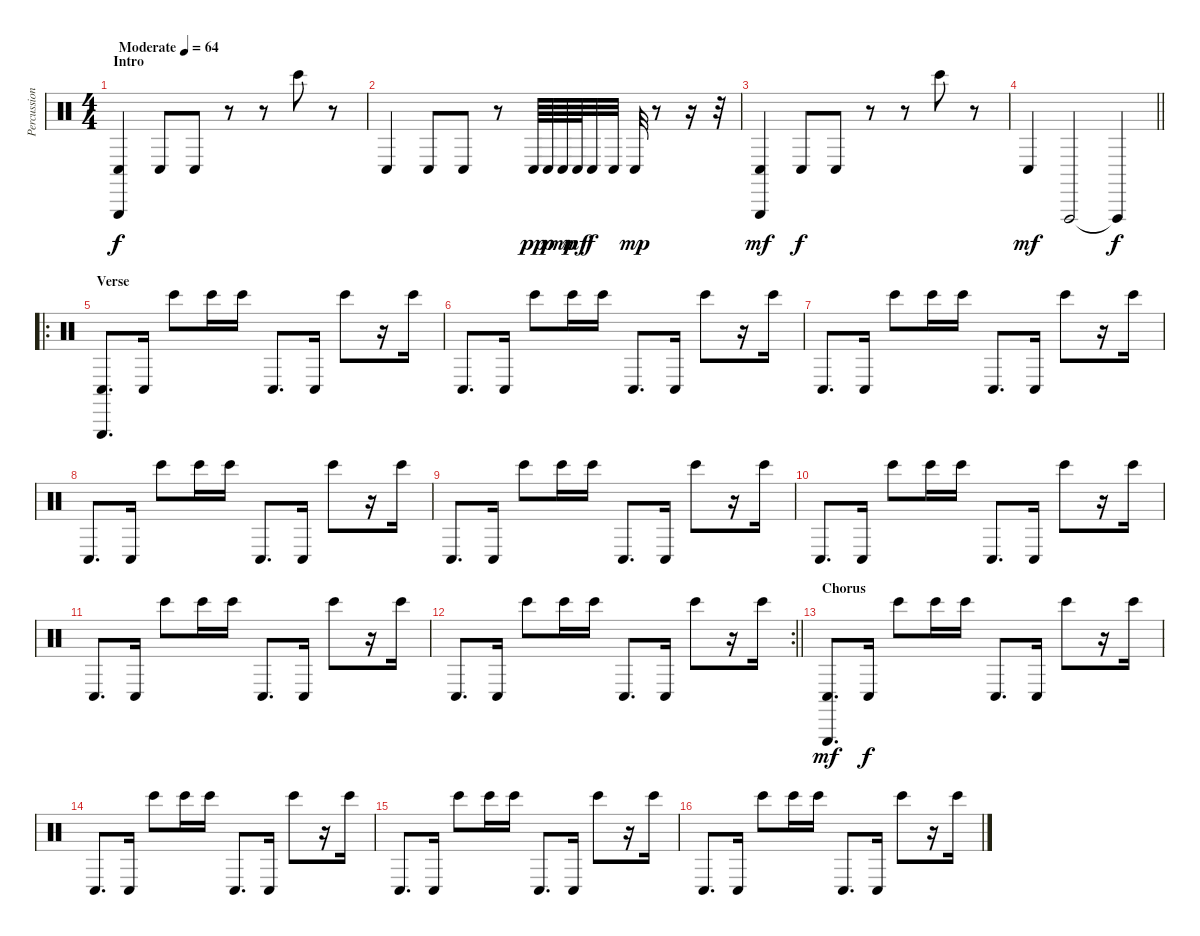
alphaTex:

\track ("Percussions" "Percussion") {instrument percussion}
\staff {score}
\articulation defaults
\ts (4 4)
\section ("" "Intro")
\tempo (64 "Moderate")
\clef neutral
\ks c
("Conga low (hit)" "Triangle (hit)").4{dy f} "Conga low (hit)".8 "Conga low (hit)".8 r.8 r.8 "Bongo High (hit)".8 r.8 |
"Conga low (hit)".4 "Conga low (hit)".8 "Conga low (hit)".8 r.8 "Conga low (hit)".64{dy pp} "Conga low (hit)".64{dy p} "Conga low (hit)".64{dy mp} "Conga low (hit)".64{dy mf} "Conga low (hit)".32{dy f} "Conga low (hit)".32 "Conga low (hit)".32{dy mp} r.8 r.16 r.32 |
("Conga low (hit)" "Triangle (hit)").4{dy mf} "Conga low (hit)".8{dy f} "Conga low (hit)".8 r.8 r.8 "Bongo High (hit)".8 r.8 |
\barLineRight lightlight "Conga low (hit)".4{dy mf} "Vibraslap (hit)".2 "Vibraslap (hit)"{t}.4{dy f}
|
\ro
\section ("" "Verse")
("Conga low (hit)" "Triangle (hit)").8{d} "Conga low (hit)".16 "Bongo High (hit)".8 "Bongo High (hit)".16 "Bongo High (hit)".16 "Conga low (hit)".8{d} "Conga low (hit)".16 "Bongo High (hit)".8 r.16 "Bongo High (hit)".16 |
"Conga low (hit)".8{d} "Conga low (hit)".16 "Bongo High (hit)".8 "Bongo High (hit)".16 "Bongo High (hit)".16 "Conga low (hit)".8{d} "Conga low (hit)".16 "Bongo High (hit)".8 r.16 "Bongo High (hit)".16 |
"Conga low (hit)".8{d} "Conga low (hit)".16 "Bongo High (hit)".8 "Bongo High (hit)".16 "Bongo High (hit)".16 "Conga low (hit)".8{d} "Conga low (hit)".16 "Bongo High (hit)".8 r.16 "Bongo High (hit)".16 |
"Conga low (hit)".8{d} "Conga low (hit)".16 "Bongo High (hit)".8 "Bongo High (hit)".16 "Bongo High (hit)".16 "Conga low (hit)".8{d} "Conga low (hit)".16 "Bongo High (hit)".8 r.16 "Bongo High (hit)".16 |
"Conga low (hit)".8{d} "Conga low (hit)".16 "Bongo High (hit)".8 "Bongo High (hit)".16 "Bongo High (hit)".16 "Conga low (hit)".8{d} "Conga low (hit)".16 "Bongo High (hit)".8 r.16 "Bongo High (hit)".16 |
"Conga low (hit)".8{d} "Conga low (hit)".16 "Bongo High (hit)".8 "Bongo High (hit)".16 "Bongo High (hit)".16 "Conga low (hit)".8{d} "Conga low (hit)".16 "Bongo High (hit)".8 r.16 "Bongo High (hit)".16 |
"Conga low (hit)".8{d} "Conga low (hit)".16 "Bongo High (hit)".8 "Bongo High (hit)".16 "Bongo High (hit)".16 "Conga low (hit)".8{d} "Conga low (hit)".16 "Bongo High (hit)".8 r.16 "Bongo High (hit)".16 |
\rc 2
\barLineRight lightlight "Conga low (hit)".8{d} "Conga low (hit)".16 "Bongo High (hit)".8 "Bongo High (hit)".16 "Bongo High (hit)".16 "Conga low (hit)".8{d} "Conga low (hit)".16 "Bongo High (hit)".8
r.16 "Bongo High (hit)".16 |
\section ("" "Chorus")
("Conga low (hit)" "Triangle (hit)").8{d dy mf} "Conga low (hit)".16{dy f} "Bongo High (hit)".8 "Bongo High (hit)".16 "Bongo High (hit)".16 "Conga low (hit)".8{d} "Conga low (hit)".16 "Bongo High (hit)".8 r.16 "Bongo High (hit)".16 |
"Conga low (hit)".8{d} "Conga low (hit)".16 "Bongo High (hit)".8 "Bongo High (hit)".16 "Bongo High (hit)".16 "Conga low (hit)".8{d} "Conga low (hit)".16 "Bongo High (hit)".8 r.16 "Bongo High (hit)".16 |
"Conga low (hit)".8{d} "Conga low (hit)".16 "Bongo High (hit)".8 "Bongo High (hit)".16 "Bongo High (hit)".16 "Conga low (hit)".8{d} "Conga low (hit)".16 "Bongo High (hit)".8 r.16 "Bongo High (hit)".16 |
"Conga low (hit)".8{d} "Conga low (hit)".16 "Bongo High (hit)".8 "Bongo High (hit)".16 "Bongo High (hit)".16 "Conga low (hit)".8{d} "Conga low (hit)".16 "Bongo High (hit)".8 r.16 "Bongo High (hit)".16
